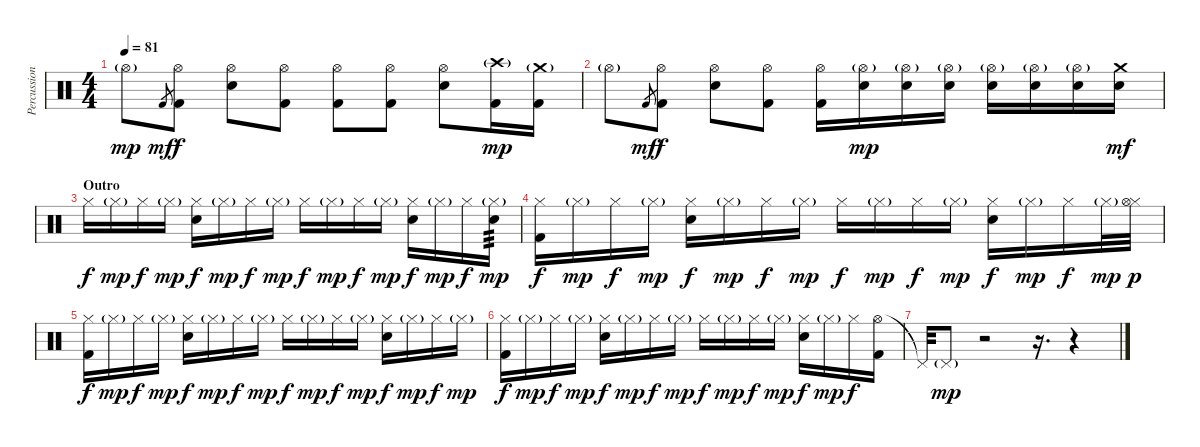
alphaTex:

\track ("Percussion" "Percussion") {instrument percussion}
\staff {score}
\articulation defaults
\ts (4 4)
\tempo 81
\clef neutral
\ks c "Hi-Hat (open)"{g}.8{dy mp} "Kick (hit) 2".8{gr dy mf}
("Hi-Hat (open)" "Kick (hit) 2").8{dy f} ("Hi-Hat (open)" "Electric Snare (hit)").8 ("Hi-Hat (open)" "Kick (hit) 2").8 ("Hi-Hat (open)" "Kick (hit) 2").8 ("Hi-Hat (open)" "Kick (hit) 2").8 ("Hi-Hat (open)" "Electric Snare (hit)").8 ("Crash high (hit)"{g} "Kick (hit) 2").16{dy mp} ("Crash medium (hit)"{g} "Kick (hit) 2").16 |
"Hi-Hat (open)"{g}.8 "Kick (hit) 2".8{gr dy mf} ("Hi-Hat (open)" "Kick (hit) 2").8{dy f} ("Hi-Hat (open)" "Electric Snare (hit)").8 ("Hi-Hat (open)" "Kick (hit) 2").8 ("Hi-Hat (open)" "Kick (hit) 2").16 ("Hi-Hat (open)"{g} "Electric Snare (hit)").16{dy mp} ("Hi-Hat (open)"{g} "Electric Snare (hit)").16 ("Hi-Hat (open)"{g} "Electric Snare (hit)").16 ("Hi-Hat (open)"{g} "Electric Snare (hit)").16 ("Hi-Hat (open)"{g} "Electric Snare (hit)").16 ("Hi-Hat (open)"{g} "Electric Snare (hit)").16 ("Crash medium (hit)" "Electric Snare (hit)").16{dy mf} |
\section ("" "Outro")
"Hi-Hat (closed)".16{dy f} "Hi-Hat (closed)"{g}.16{dy mp} "Hi-Hat (closed)".16{dy f} "Hi-Hat (closed)"{g}.16{dy mp} ("Hi-Hat (closed)" "Electric Snare (hit)").16{dy f} "Hi-Hat (closed)"{g}.16{dy mp} "Hi-Hat (closed)".16{dy f} "Hi-Hat (closed)"{g}.16{dy mp} "Hi-Hat (closed)".16{dy f} "Hi-Hat (closed)"{g}.16{dy mp} "Hi-Hat (closed)".16{dy f} "Hi-Hat (closed)"{g}.16{dy mp} ("Hi-Hat (closed)" "Electric Snare (hit)").16{dy f} "Hi-Hat (closed)"{g}.16{dy mp} "Hi-Hat (closed)".16{dy f} ("Hi-Hat (closed)"{g} "Electric Snare (hit)").16{tp 3 dy mp} |
("Hi-Hat (closed)" "Kick (hit) 2").16{dy f} "Hi-Hat (closed)"{g}.16{dy mp} "Hi-Hat (closed)".16{dy f} "Hi-Hat (closed)"{g}.16{dy mp} ("Hi-Hat (closed)" "Electric Snare (hit)").16{dy f} "Hi-Hat (closed)"{g}.16{dy mp} "Hi-Hat (closed)".16{dy f} "Hi-Hat (closed)"{g}.16{dy mp} "Hi-Hat (closed)".16{dy f} "Hi-Hat (closed)"{g}.16{dy mp} "Hi-Hat (closed)".16{dy f} "Hi-Hat (closed)"{g}.16{dy mp} ("Hi-Hat (closed)" "Electric Snare (hit)").16{dy f} "Hi-Hat (closed)"{g}.16{dy mp} "Hi-Hat (closed)".16{dy f} "Hi-Hat (closed)"{g}.32{dy mp} ("Hi-Hat (closed)" "Hi-Hat (open)").32{dy p} |
("Hi-Hat (closed)" "Kick (hit) 2").16{dy f} "Hi-Hat (closed)"{g}.16{dy mp} "Hi-Hat (closed)".16{dy f} "Hi-Hat (closed)"{g}.16{dy mp} ("Hi-Hat (closed)" "Electric Snare (hit)").16{dy f} "Hi-Hat (closed)"{g}.16{dy mp} "Hi-Hat (closed)".16{dy f} "Hi-Hat (closed)"{g}.16{dy mp} "Hi-Hat (closed)".16{dy f} "Hi-Hat (closed)"{g}.16{dy mp} "Hi-Hat (closed)".16{dy f} "Hi-Hat (closed)"{g}.16{dy mp} ("Hi-Hat (closed)" "Electric Snare (hit)").16{dy f} "Hi-Hat (closed)"{g}.16{dy mp} "Hi-Hat (closed)".16{dy f} "Hi-Hat (closed)"{g}.16{dy mp} |
("Hi-Hat (closed)" "Kick (hit) 2").16{dy f} "Hi-Hat (closed)"{g}.16{dy mp} "Hi-Hat (closed)".16{dy f} "Hi-Hat (closed)"{g}.16{dy mp} ("Hi-Hat (closed)" "Electric Snare (hit)").16{dy f} "Hi-Hat (closed)"{g}.16{dy mp} "Hi-Hat (closed)".16{dy f} "Hi-Hat (closed)"{g}.16{dy mp} "Hi-Hat (closed)".16{dy f} "Hi-Hat (closed)"{g}.16{dy mp} "Hi-Hat (closed)".16{dy f} "Hi-Hat (closed)"{g}.16{dy mp} ("Hi-Hat (closed)" "Electric Snare (hit)").16{dy f} "Hi-Hat (closed)"{g}.16{dy mp} "Hi-Hat (closed)".16{dy f} ("Hi-Hat (open)" "Kick (hit) 2").16 |
"Pedal Hi-Hat (hit)"{t}.32 "Pedal Hi-Hat (hit)"{g}.8{dy mp} r.2 r.16{d} r.4
